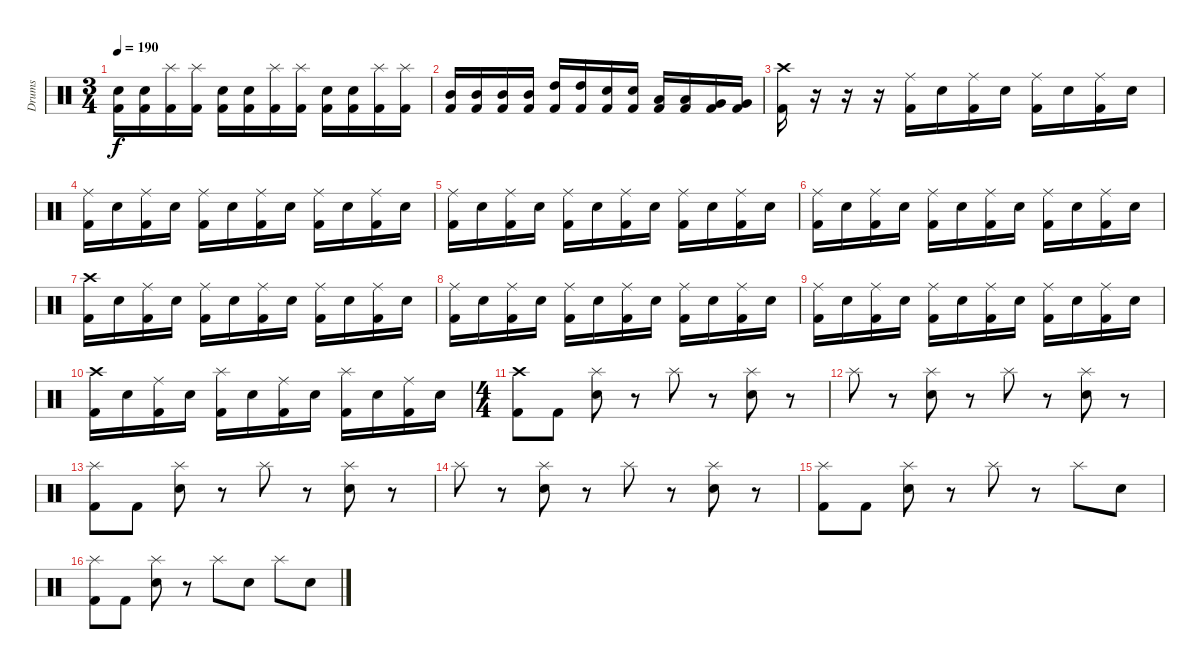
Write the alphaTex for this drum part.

\track ("Drums" "Drums") {instrument percussion}
\staff {score}
\articulation defaults
\ts (3 4)
\tempo 190
\clef neutral
\ks c
("Snare (hit) 2" "Kick (hit) 2").16{dy f} ("Snare (hit) 2" "Kick (hit) 2").16 ("Splash (hit)" "Kick (hit) 2").16 ("Splash (hit)" "Kick (hit) 2").16 ("Snare (hit) 2" "Kick (hit) 2").16 ("Snare (hit) 2" "Kick (hit) 2").16 ("Splash (hit)" "Kick (hit) 2").16 ("Splash (hit)" "Kick (hit) 2").16 ("Snare (hit) 2" "Kick (hit) 2").16 ("Snare (hit) 2" "Kick (hit) 2").16 ("Splash (hit)" "Kick (hit) 2").16 ("Splash (hit)" "Kick (hit) 2").16 |
("Mid Tom (hit)" "Kick (hit) 2").16 ("Mid Tom (hit)" "Kick (hit) 2").16 ("Mid Tom (hit)" "Kick (hit) 2").16 ("Mid Tom (hit)" "Kick (hit) 2").16 ("High Tom (hit)" "Kick (hit) 2").16 ("High Tom (hit)" "Kick (hit) 2").16 ("Snare (hit) 2" "Kick (hit) 2").16 ("Snare (hit) 2" "Kick (hit) 2").16 ("Low Tom (hit)" "Kick (hit) 2").16 ("Low Tom (hit)" "Kick (hit) 2").16 ("Very Low Tom (hit)" "Kick (hit) 2").16 ("Very Low Tom (hit)" "Kick (hit) 2").16 |
("Crash high (hit)" "Kick (hit) 2").16 r.16 r.16 r.16 ("Ride (middle)" "Kick (hit) 2").16 "Snare (hit) 2".16 ("Ride (middle)" "Kick (hit) 2").16 "Snare (hit) 2".16 ("Ride (middle)" "Kick (hit) 2").16 "Snare (hit) 2".16 ("Ride (middle)" "Kick (hit) 2").16 "Snare (hit) 2".16 |
("Ride (middle)" "Kick (hit) 2").16 "Snare (hit) 2".16 ("Ride (middle)" "Kick (hit) 2").16 "Snare (hit) 2".16 ("Ride (middle)" "Kick (hit) 2").16 "Snare (hit) 2".16 ("Ride (middle)" "Kick (hit) 2").16 "Snare (hit) 2".16 ("Ride (middle)" "Kick (hit) 2").16 "Snare (hit) 2".16 ("Ride (middle)" "Kick (hit) 2").16 "Snare (hit) 2".16 |
("Ride (middle)" "Kick (hit) 2").16 "Snare (hit) 2".16 ("Ride (middle)" "Kick (hit) 2").16 "Snare (hit) 2".16 ("Ride (middle)" "Kick (hit) 2").16 "Snare (hit) 2".16 ("Ride (middle)" "Kick (hit) 2").16 "Snare (hit) 2".16 ("Ride (middle)" "Kick (hit) 2").16 "Snare (hit) 2".16 ("Ride (middle)" "Kick (hit) 2").16 "Snare (hit) 2".16 |
("Ride (middle)" "Kick (hit) 2").16 "Snare (hit) 2".16 ("Ride (middle)" "Kick (hit) 2").16 "Snare (hit) 2".16 ("Ride (middle)" "Kick (hit) 2").16 "Snare (hit) 2".16 ("Ride (middle)" "Kick (hit) 2").16 "Snare (hit) 2".16 ("Ride (middle)" "Kick (hit) 2").16 "Snare (hit) 2".16 ("Ride (middle)" "Kick (hit) 2").16 "Snare (hit) 2".16 |
("Crash high (hit)" "Kick (hit) 2").16 "Snare (hit) 2".16 ("Ride (middle)" "Kick (hit) 2").16 "Snare (hit) 2".16 ("Ride (middle)" "Kick (hit) 2").16 "Snare (hit) 2".16 ("Ride (middle)" "Kick (hit) 2").16 "Snare (hit) 2".16 ("Ride (middle)" "Kick (hit) 2").16 "Snare (hit) 2".16 ("Ride (middle)" "Kick (hit) 2").16 "Snare (hit) 2".16 |
("Ride (middle)" "Kick (hit) 2").16 "Snare (hit) 2".16 ("Ride (middle)" "Kick (hit) 2").16 "Snare (hit) 2".16 ("Ride (middle)" "Kick (hit) 2").16 "Snare (hit) 2".16 ("Ride (middle)" "Kick (hit) 2").16 "Snare (hit) 2".16 ("Ride (middle)" "Kick (hit) 2").16 "Snare (hit) 2".16 ("Ride (middle)" "Kick (hit) 2").16 "Snare (hit) 2".16 |
("Ride (middle)" "Kick (hit) 2").16 "Snare (hit) 2".16 ("Ride (middle)" "Kick (hit) 2").16 "Snare (hit) 2".16 ("Ride (middle)" "Kick (hit) 2").16 "Snare (hit) 2".16 ("Ride (middle)" "Kick (hit) 2").16 "Snare (hit) 2".16 ("Ride (middle)" "Kick (hit) 2").16 "Snare (hit) 2".16 ("Ride (middle)" "Kick (hit) 2").16 "Snare (hit) 2".16 |
("Crash high (hit)" "Kick (hit) 2").16 "Snare (hit) 2".16 ("Ride (middle)" "Kick (hit) 2").16 "Snare (hit) 2".16 ("Splash (hit)" "Kick (hit) 2").16 "Snare (hit) 2".16 ("Ride (middle)" "Kick (hit) 2").16 "Snare (hit) 2".16 ("Splash (hit)" "Kick (hit) 2").16 "Snare (hit) 2".16 ("Ride (middle)" "Kick (hit) 2").16 "Snare (hit) 2".16 |
\ts (4 4)
("Crash high (hit)" "Kick (hit) 2").8 "Kick (hit) 2".8 ("Splash (hit)" "Snare (hit) 2").8 r.8 "Splash (hit)".8 r.8 ("Splash (hit)" "Snare (hit) 2").8 r.8 |
"Splash (hit)".8 r.8 ("Splash (hit)" "Snare (hit) 2").8 r.8 "Splash (hit)".8 r.8 ("Splash (hit)" "Snare (hit) 2").8 r.8 |
("Splash (hit)" "Kick (hit) 2").8 "Kick (hit) 2".8 ("Splash (hit)" "Snare (hit) 2").8 r.8 "Splash (hit)".8 r.8 ("Splash (hit)" "Snare (hit) 2").8 r.8 |
"Splash (hit)".8 r.8 ("Splash (hit)" "Snare (hit) 2").8 r.8 "Splash (hit)".8 r.8 ("Splash (hit)" "Snare (hit) 2").8 r.8 |
("Splash (hit)" "Kick (hit) 2").8 "Kick (hit) 2".8 ("Splash (hit)" "Snare (hit) 2").8 r.8 "Splash (hit)".8 r.8 "Splash (hit)".8 "Snare (hit) 2".8 |
("Splash (hit)" "Kick (hit) 2").8 "Kick (hit) 2".8 ("Splash (hit)" "Snare (hit) 2").8 r.8 "Splash (hit)".8 "Snare (hit) 2".8 "Splash (hit)".8 "Snare (hit) 2".8
